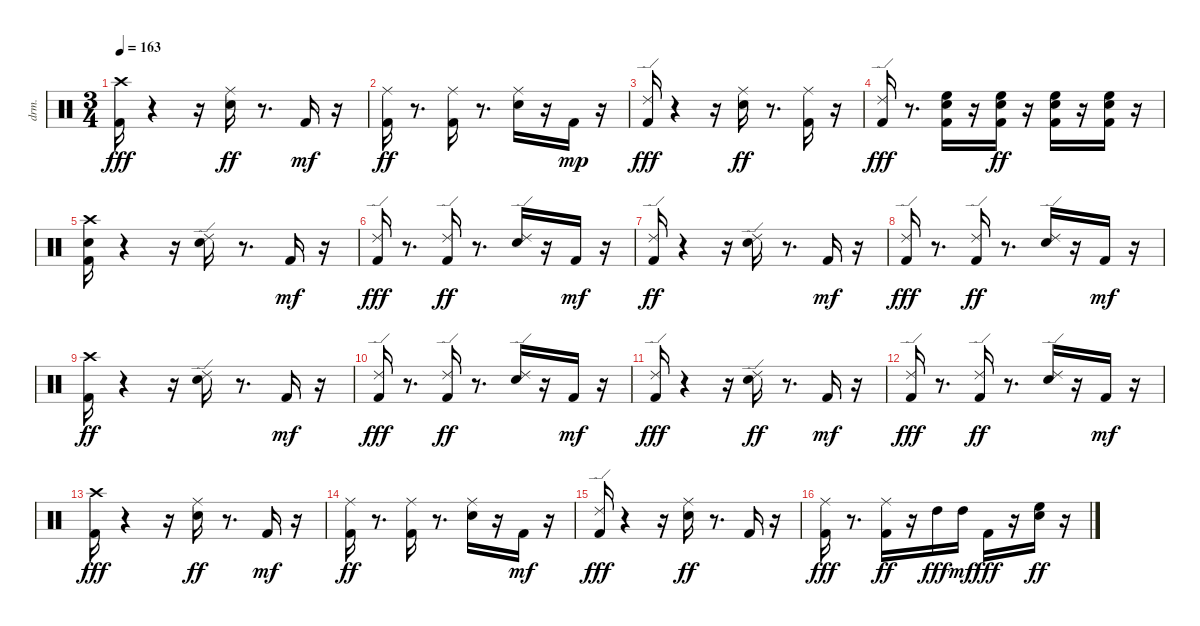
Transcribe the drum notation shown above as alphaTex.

\bracketExtendMode nobrackets
\track ("EZdrummer 3" "drm.") {instrument percussion}
\staff {score}
\articulation defaults
\ts (3 4)
\tempo 163
\clef neutral
\ks aminor
("Kick (hit) 2" "Crash high (hit)"{acc #}).16{dy fff beam Down} r.4{beam Down} r.16{beam Down} ("Snare (hit) 2" "Ride (middle)"{acc #}).16{dy ff beam Down} r.8{d beam Down} "Kick (hit) 2".16{dy mf beam Up} r.16{beam Down} |
("Kick (hit) 2" "Ride (middle)"{acc #}).16{dy ff beam Down} r.8{d beam Down} ("Kick (hit) 2" "Ride (middle)"{acc #}).16{beam Down} r.8{d beam Down} ("Snare (hit) 2" "Ride (middle)"{acc #}).16{beam Down} r.16{beam Down} "Kick (hit) 2".16{dy mp beam Down} r.16{beam Down} |
("Kick (hit) 2" "Ride (edge) 2").16{dy fff beam Up} r.4{beam Down} r.16{beam Down} ("Snare (hit) 2" "Ride (middle)"{acc #}).16{dy ff beam Down} r.8{d beam Down} ("Kick (hit) 2" "Ride (middle)"{acc #}).16{beam Down} r.16{beam Down} |
("Kick (hit) 2" "Ride (edge) 2").16{dy fff beam Up} r.8{d beam Down} ("Kick (hit) 2" "Snare (hit) 2" "High Floor Tom (hit)").16{beam Down} r.16{beam Down} ("Kick (hit) 2" "Snare (hit) 2" "High Floor Tom (hit)").16{dy ff beam Down} r.16{beam Down} ("Kick (hit) 2" "Snare (hit) 2" "High Floor Tom (hit)").16{beam Down} r.16{beam Down} ("Kick (hit) 2" "Snare (hit) 2" "High Floor Tom (hit)").16{beam Down} r.16{beam Down} |
("Kick (hit) 2" "Snare (hit) 2" "Crash high (hit)"{acc #}).16{beam Down} r.4{beam Down} r.16{beam Down} ("Snare (hit) 2" "Ride (edge) 2").16{beam Down} r.8{d beam Down} "Kick (hit) 2".16{dy mf beam Up} r.16{beam Down} |
("Kick (hit) 2" "Ride (edge) 2").16{dy fff beam Up} r.8{d beam Down} ("Kick (hit) 2" "Ride (edge) 2").16{dy ff beam Up} r.8{d beam Down} ("Snare (hit) 2" "Ride (edge) 2").16{beam Up} r.16{beam Up} "Kick (hit) 2".16{dy mf beam Up} r.16{beam Down} |
("Kick (hit) 2" "Ride (edge) 2").16{dy ff beam Up} r.4{beam Down} r.16{beam Down} ("Snare (hit) 2" "Ride (edge) 2").16{beam Down} r.8{d beam Down} "Kick (hit) 2".16{dy mf beam Up} r.16{beam Down} |
("Kick (hit) 2" "Ride (edge) 2").16{dy fff beam Up} r.8{d beam Down} ("Kick (hit) 2" "Ride (edge) 2").16{dy ff beam Up} r.8{d beam Down} ("Snare (hit) 2" "Ride (edge) 2").16{beam Up} r.16{beam Up} "Kick (hit) 2".16{dy mf beam Up} r.16{beam Down} |
("Kick (hit) 2" "Crash high (hit)"{acc #}).16{dy ff beam Down} r.4{beam Down} r.16{beam Down} ("Snare (hit) 2" "Ride (edge) 2").16{beam Down} r.8{d beam Down} "Kick (hit) 2".16{dy mf beam Up} r.16{beam Down} |
("Kick (hit) 2" "Ride (edge) 2").16{dy fff beam Up} r.8{d beam Down} ("Kick (hit) 2" "Ride (edge) 2").16{dy ff beam Up} r.8{d beam Down} ("Snare (hit) 2" "Ride (edge) 2").16{beam Up} r.16{beam Up} "Kick (hit) 2".16{dy mf beam Up} r.16{beam Down} |
("Kick (hit) 2" "Ride (edge) 2").16{dy fff beam Up} r.4{beam Down} r.16{beam Down} ("Snare (hit) 2" "Ride (edge) 2").16{dy ff beam Down} r.8{d beam Down} "Kick (hit) 2".16{dy mf beam Up} r.16{beam Down} |
("Kick (hit) 2" "Ride (edge) 2").16{dy fff beam Up} r.8{d beam Down} ("Kick (hit) 2" "Ride (edge) 2").16{dy ff beam Up} r.8{d beam Down} ("Snare (hit) 2" "Ride (edge) 2").16{beam Up} r.16{beam Up} "Kick (hit) 2".16{dy mf beam Up} r.16{beam Down} |
("Kick (hit) 2" "Crash high (hit)"{acc #}).16{dy fff beam Down} r.4{beam Down} r.16{beam Down} ("Snare (hit) 2" "Ride (middle)"{acc #}).16{dy ff beam Down} r.8{d beam Down} "Kick (hit) 2".16{dy mf beam Up} r.16{beam Down} |
("Kick (hit) 2" "Ride (middle)"{acc #}).16{dy ff beam Down} r.8{d beam Down} ("Kick (hit) 2" "Ride (middle)"{acc #}).16{beam Down} r.8{d beam Down} ("Snare (hit) 2" "Ride (middle)"{acc #}).16{beam Down} r.16{beam Down} "Kick (hit) 2".16{dy mf beam Down} r.16{beam Down} |
("Kick (hit) 2" "Ride (edge) 2").16{dy fff beam Up} r.4{beam Down} r.16{beam Down} ("Snare (hit) 2" "Ride (middle)"{acc #}).16{dy ff beam Down} r.8{d beam Down} "Kick (hit) 2".16{beam Up} r.16{beam Down} |
("Kick (hit) 2" "Ride (middle)"{acc #}).16{dy fff beam Down} r.8{d beam Down} ("Kick (hit) 2" "Ride (middle)"{acc #}).16{dy ff beam Down} r.16{beam Down} "High Tom (hit)".16{dy fff beam Down} "High Tom (hit)".16{dy mf beam Down} "Kick (hit) 2".16{dy fff beam Down} r.16{beam Down} ("Snare (hit) 2" "High Floor Tom (hit)").16{dy ff beam Down} r.16{beam Down}
